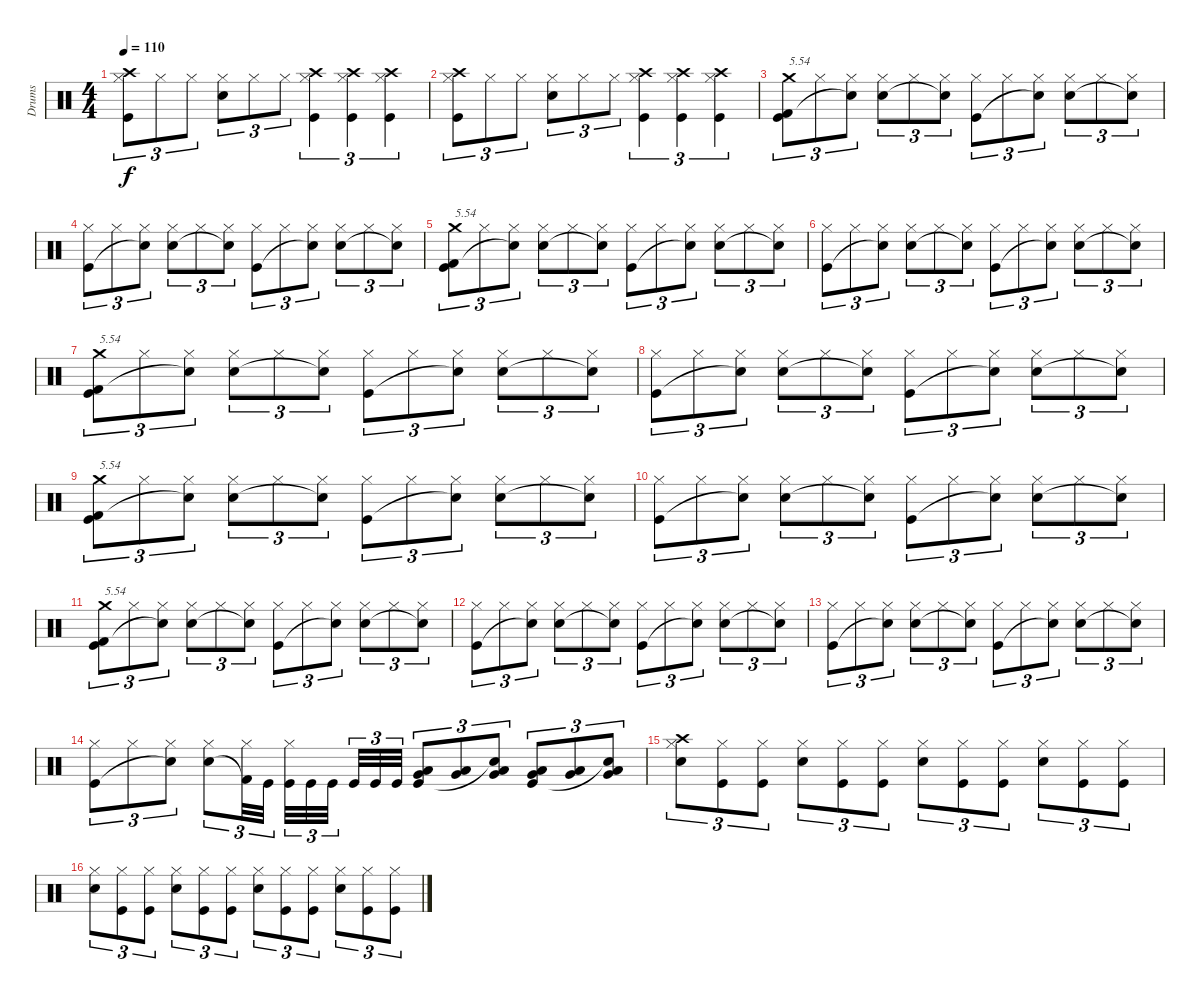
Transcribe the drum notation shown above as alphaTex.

\track ("Drums" "Drums") {instrument percussion}
\staff {score}
\articulation defaults
\ts (4 4)
\tempo 110
\clef neutral
\ks c
("Crash high (hit)" "Hi-Hat (closed)" "Kick (hit)").8{tu (3 2) dy f} "Hi-Hat (closed)".8{tu (3 2)} "Hi-Hat (closed)".8{tu (3 2)} ("Hi-Hat (closed)" "Snare (hit) 2").8{tu (3 2)} "Hi-Hat (closed)".8{tu (3 2)} "Hi-Hat (closed)".8{tu (3 2)} ("Crash high (hit)" "Hi-Hat (closed)" "Kick (hit)").4{tu (3 2)} ("Crash high (hit)" "Hi-Hat (closed)" "Kick (hit)").4{tu (3 2)} ("Crash high (hit)" "Hi-Hat (closed)" "Kick (hit)").4{tu (3 2)} |
("Crash high (hit)" "Hi-Hat (closed)" "Kick (hit)").8{tu (3 2)} "Hi-Hat (closed)".8{tu (3 2)} "Hi-Hat (closed)".8{tu (3 2)} ("Hi-Hat (closed)" "Snare (hit) 2").8{tu (3 2)} "Hi-Hat (closed)".8{tu (3 2)} "Hi-Hat (closed)".8{tu (3 2)} ("Crash high (hit)" "Hi-Hat (closed)" "Kick (hit)").4{tu (3 2)} ("Crash high (hit)" "Hi-Hat (closed)" "Kick (hit)").4{tu (3 2)} ("Crash high (hit)" "Hi-Hat (closed)" "Kick (hit)").4{tu (3 2)} |
("Crash medium (hit)" "Kick (hit) 2" "Kick (hit)").8{tu (3 2) txt "5.54"} "Hi-Hat (closed)".8{tu (3 2)} ("Hi-Hat (closed)" "Snare (hit)"{t}).8{tu (3 2)} ("Hi-Hat (closed)" "Snare (hit) 2").8{tu (3 2)} "Hi-Hat (closed)".8{tu (3 2)} ("Hi-Hat (closed)" "Snare (hit)"{t}).8{tu (3 2)} ("Hi-Hat (closed)" "Kick (hit)").8{tu (3 2)} "Hi-Hat (closed)".8{tu (3 2)} ("Hi-Hat (closed)" "Snare (hit)"{t}).8{tu (3 2)} ("Hi-Hat (closed)" "Snare (hit) 2").8{tu (3 2)} "Hi-Hat (closed)".8{tu (3 2)} ("Hi-Hat (closed)" "Snare (hit)"{t}).8{tu (3 2)} |
("Hi-Hat (closed)" "Kick (hit)").8{tu (3 2)} "Hi-Hat (closed)".8{tu (3 2)} ("Hi-Hat (closed)" "Snare (hit)"{t}).8{tu (3 2)} ("Hi-Hat (closed)" "Snare (hit) 2").8{tu (3 2)} "Hi-Hat (closed)".8{tu (3 2)} ("Hi-Hat (closed)" "Snare (hit)"{t}).8{tu (3 2)} ("Hi-Hat (closed)" "Kick (hit)").8{tu (3 2)} "Hi-Hat (closed)".8{tu (3 2)} ("Hi-Hat (closed)" "Snare (hit)"{t}).8{tu (3 2)} ("Hi-Hat (closed)" "Snare (hit) 2").8{tu (3 2)} "Hi-Hat (closed)".8{tu (3 2)} ("Hi-Hat (closed)" "Snare (hit)"{t}).8{tu (3 2)} |
("Crash medium (hit)" "Kick (hit) 2" "Kick (hit)").8{tu (3 2) txt "5.54"} "Hi-Hat (closed)".8{tu (3 2)} ("Hi-Hat (closed)" "Snare (hit)"{t}).8{tu (3 2)} ("Hi-Hat (closed)" "Snare (hit) 2").8{tu (3 2)} "Hi-Hat (closed)".8{tu (3 2)} ("Hi-Hat (closed)" "Snare (hit)"{t}).8{tu (3 2)} ("Hi-Hat (closed)" "Kick (hit)").8{tu (3 2)} "Hi-Hat (closed)".8{tu (3 2)} ("Hi-Hat (closed)" "Snare (hit)"{t}).8{tu (3 2)} ("Hi-Hat (closed)" "Snare (hit) 2").8{tu (3 2)} "Hi-Hat (closed)".8{tu (3 2)} ("Hi-Hat (closed)" "Snare (hit)"{t}).8{tu (3 2)} |
("Hi-Hat (closed)" "Kick (hit)").8{tu (3 2)} "Hi-Hat (closed)".8{tu (3 2)} ("Hi-Hat (closed)" "Snare (hit)"{t}).8{tu (3 2)} ("Hi-Hat (closed)" "Snare (hit) 2").8{tu (3 2)} "Hi-Hat (closed)".8{tu (3 2)} ("Hi-Hat (closed)" "Snare (hit)"{t}).8{tu (3 2)} ("Hi-Hat (closed)" "Kick (hit)").8{tu (3 2)} "Hi-Hat (closed)".8{tu (3 2)} ("Hi-Hat (closed)" "Snare (hit)"{t}).8{tu (3 2)} ("Hi-Hat (closed)" "Snare (hit) 2").8{tu (3 2)} "Hi-Hat (closed)".8{tu (3 2)} ("Hi-Hat (closed)" "Snare (hit)"{t}).8{tu (3 2)} |
("Crash medium (hit)" "Kick (hit) 2" "Kick (hit)").8{tu (3 2) txt "5.54"} "Hi-Hat (closed)".8{tu (3 2)} ("Hi-Hat (closed)" "Snare (hit)"{t}).8{tu (3 2)} ("Hi-Hat (closed)" "Snare (hit) 2").8{tu (3 2)} "Hi-Hat (closed)".8{tu (3 2)} ("Hi-Hat (closed)" "Snare (hit)"{t}).8{tu (3 2)} ("Hi-Hat (closed)" "Kick (hit)").8{tu (3 2)} "Hi-Hat (closed)".8{tu (3 2)} ("Hi-Hat (closed)" "Snare (hit)"{t}).8{tu (3 2)} ("Hi-Hat (closed)" "Snare (hit) 2").8{tu (3 2)} "Hi-Hat (closed)".8{tu (3 2)} ("Hi-Hat (closed)" "Snare (hit)"{t}).8{tu (3 2)} |
("Hi-Hat (closed)" "Kick (hit)").8{tu (3 2)} "Hi-Hat (closed)".8{tu (3 2)} ("Hi-Hat (closed)" "Snare (hit)"{t}).8{tu (3 2)} ("Hi-Hat (closed)" "Snare (hit) 2").8{tu (3 2)} "Hi-Hat (closed)".8{tu (3 2)} ("Hi-Hat (closed)" "Snare (hit)"{t}).8{tu (3 2)} ("Hi-Hat (closed)" "Kick (hit)").8{tu (3 2)} "Hi-Hat (closed)".8{tu (3 2)} ("Hi-Hat (closed)" "Snare (hit)"{t}).8{tu (3 2)} ("Hi-Hat (closed)" "Snare (hit) 2").8{tu (3 2)} "Hi-Hat (closed)".8{tu (3 2)} ("Hi-Hat (closed)" "Snare (hit)"{t}).8{tu (3 2)} |
("Crash medium (hit)" "Kick (hit) 2" "Kick (hit)").8{tu (3 2) txt "5.54"} "Hi-Hat (closed)".8{tu (3 2)} ("Hi-Hat (closed)" "Snare (hit)"{t}).8{tu (3 2)} ("Hi-Hat (closed)" "Snare (hit) 2").8{tu (3 2)} "Hi-Hat (closed)".8{tu (3 2)} ("Hi-Hat (closed)" "Snare (hit)"{t}).8{tu (3 2)} ("Hi-Hat (closed)" "Kick (hit)").8{tu (3 2)} "Hi-Hat (closed)".8{tu (3 2)} ("Hi-Hat (closed)" "Snare (hit)"{t}).8{tu (3 2)} ("Hi-Hat (closed)" "Snare (hit) 2").8{tu (3 2)} "Hi-Hat (closed)".8{tu (3 2)} ("Hi-Hat (closed)" "Snare (hit)"{t}).8{tu (3 2)} |
("Hi-Hat (closed)" "Kick (hit)").8{tu (3 2)} "Hi-Hat (closed)".8{tu (3 2)} ("Hi-Hat (closed)" "Snare (hit)"{t}).8{tu (3 2)} ("Hi-Hat (closed)" "Snare (hit) 2").8{tu (3 2)} "Hi-Hat (closed)".8{tu (3 2)} ("Hi-Hat (closed)" "Snare (hit)"{t}).8{tu (3 2)} ("Hi-Hat (closed)" "Kick (hit)").8{tu (3 2)} "Hi-Hat (closed)".8{tu (3 2)} ("Hi-Hat (closed)" "Snare (hit)"{t}).8{tu (3 2)} ("Hi-Hat (closed)" "Snare (hit) 2").8{tu (3 2)} "Hi-Hat (closed)".8{tu (3 2)} ("Hi-Hat (closed)" "Snare (hit)"{t}).8{tu (3 2)} |
("Crash medium (hit)" "Kick (hit) 2" "Kick (hit)").8{tu (3 2) txt "5.54"} "Hi-Hat (closed)".8{tu (3 2)} ("Hi-Hat (closed)" "Snare (hit)"{t}).8{tu (3 2)} ("Hi-Hat (closed)" "Snare (hit) 2").8{tu (3 2)} "Hi-Hat (closed)".8{tu (3 2)} ("Hi-Hat (closed)" "Snare (hit)"{t}).8{tu (3 2)} ("Hi-Hat (closed)" "Kick (hit)").8{tu (3 2)} "Hi-Hat (closed)".8{tu (3 2)} ("Hi-Hat (closed)" "Snare (hit)"{t}).8{tu (3 2)} ("Hi-Hat (closed)" "Snare (hit) 2").8{tu (3 2)} "Hi-Hat (closed)".8{tu (3 2)} ("Hi-Hat (closed)" "Snare (hit)"{t}).8{tu (3 2)} |
("Hi-Hat (closed)" "Kick (hit)").8{tu (3 2)} "Hi-Hat (closed)".8{tu (3 2)} ("Hi-Hat (closed)" "Snare (hit)"{t}).8{tu (3 2)} ("Hi-Hat (closed)" "Snare (hit) 2").8{tu (3 2)} "Hi-Hat (closed)".8{tu (3 2)} ("Hi-Hat (closed)" "Snare (hit)"{t}).8{tu (3 2)} ("Hi-Hat (closed)" "Kick (hit)").8{tu (3 2)} "Hi-Hat (closed)".8{tu (3 2)} ("Hi-Hat (closed)" "Snare (hit)"{t}).8{tu (3 2)} ("Hi-Hat (closed)" "Snare (hit) 2").8{tu (3 2)} "Hi-Hat (closed)".8{tu (3 2)} ("Hi-Hat (closed)" "Snare (hit)"{t}).8{tu (3 2)} |
("Hi-Hat (closed)" "Kick (hit)").8{tu (3 2)} "Hi-Hat (closed)".8{tu (3 2)} ("Hi-Hat (closed)" "Snare (hit)"{t}).8{tu (3 2)} ("Hi-Hat (closed)" "Snare (hit) 2").8{tu (3 2)} "Hi-Hat (closed)".8{tu (3 2)} ("Hi-Hat (closed)" "Snare (hit)"{t}).8{tu (3 2)} ("Hi-Hat (closed)" "Kick (hit)").8{tu (3 2)} "Hi-Hat (closed)".8{tu (3 2)} ("Hi-Hat (closed)" "Snare (hit)"{t}).8{tu (3 2)} ("Hi-Hat (closed)" "Snare (hit) 2").8{tu (3 2)} "Hi-Hat (closed)".8{tu (3 2)} ("Hi-Hat (closed)" "Snare (hit)"{t}).8{tu (3 2)} |
("Hi-Hat (closed)" "Kick (hit)").8{tu (3 2)} "Hi-Hat (closed)".8{tu (3 2)} ("Hi-Hat (closed)" "Snare (hit)"{t}).8{tu (3 2)} ("Hi-Hat (closed)" "Snare (hit) 2").8{tu (3 2)} ("Hi-Hat (closed)" "Kick (hit) 2"{t}).32{tu (3 2)} "Kick (hit)".32{tu (3 2)} ("Hi-Hat (closed)" "Kick (hit)").32{tu (3 2)} "Kick (hit)".32{tu (3 2)} "Kick (hit)".32{tu (3 2)} "Kick (hit)".32{tu (3 2)} "Kick (hit)".32{tu (3 2)} "Kick (hit)".32{tu (3 2)} ("Low Tom (hit)" "Very Low Tom (hit)" "Kick (hit)").8{tu (3 2)} ("Low Tom (hit)" "Very Low Tom (hit)").8{tu (3 2)} ("Low Tom (hit)" "Very Low Tom (hit)" "Snare (hit)"{t}).8{tu (3 2)} ("Very Low Tom (hit)" "Low Floor Tom (hit)" "Kick (hit)").8{tu (3 2)} ("Very Low Tom (hit)" "Low Floor Tom (hit)").8{tu (3 2)} ("Very Low Tom (hit)" "Low Floor Tom (hit)" "Snare (hit)"{t}).8{tu (3 2)} |
("Crash high (hit)" "Hi-Hat (closed)" "Snare (hit) 2").8{tu (3 2)} ("Hi-Hat (closed)" "Kick (hit)").8{tu (3 2)} ("Hi-Hat (closed)" "Kick (hit)").8{tu (3 2)} ("Hi-Hat (closed)" "Snare (hit) 2").8{tu (3 2)} ("Hi-Hat (closed)" "Kick (hit)").8{tu (3 2)} ("Hi-Hat (closed)" "Kick (hit)").8{tu (3 2)} ("Hi-Hat (closed)" "Snare (hit) 2").8{tu (3 2)} ("Hi-Hat (closed)" "Kick (hit)").8{tu (3 2)} ("Hi-Hat (closed)" "Kick (hit)").8{tu (3 2)} ("Hi-Hat (closed)" "Snare (hit) 2").8{tu (3 2)} ("Hi-Hat (closed)" "Kick (hit)").8{tu (3 2)} ("Hi-Hat (closed)" "Kick (hit)").8{tu (3 2)} |
("Hi-Hat (closed)" "Snare (hit) 2").8{tu (3 2)} ("Hi-Hat (closed)" "Kick (hit)").8{tu (3 2)} ("Hi-Hat (closed)" "Kick (hit)").8{tu (3 2)} ("Hi-Hat (closed)" "Snare (hit) 2").8{tu (3 2)} ("Hi-Hat (closed)" "Kick (hit)").8{tu (3 2)} ("Hi-Hat (closed)" "Kick (hit)").8{tu (3 2)} ("Hi-Hat (closed)" "Snare (hit) 2").8{tu (3 2)} ("Hi-Hat (closed)" "Kick (hit)").8{tu (3 2)} ("Hi-Hat (closed)" "Kick (hit)").8{tu (3 2)} ("Hi-Hat (closed)" "Snare (hit) 2").8{tu (3 2)} ("Hi-Hat (closed)" "Kick (hit)").8{tu (3 2)} ("Hi-Hat (closed)" "Kick (hit)").8{tu (3 2)}
